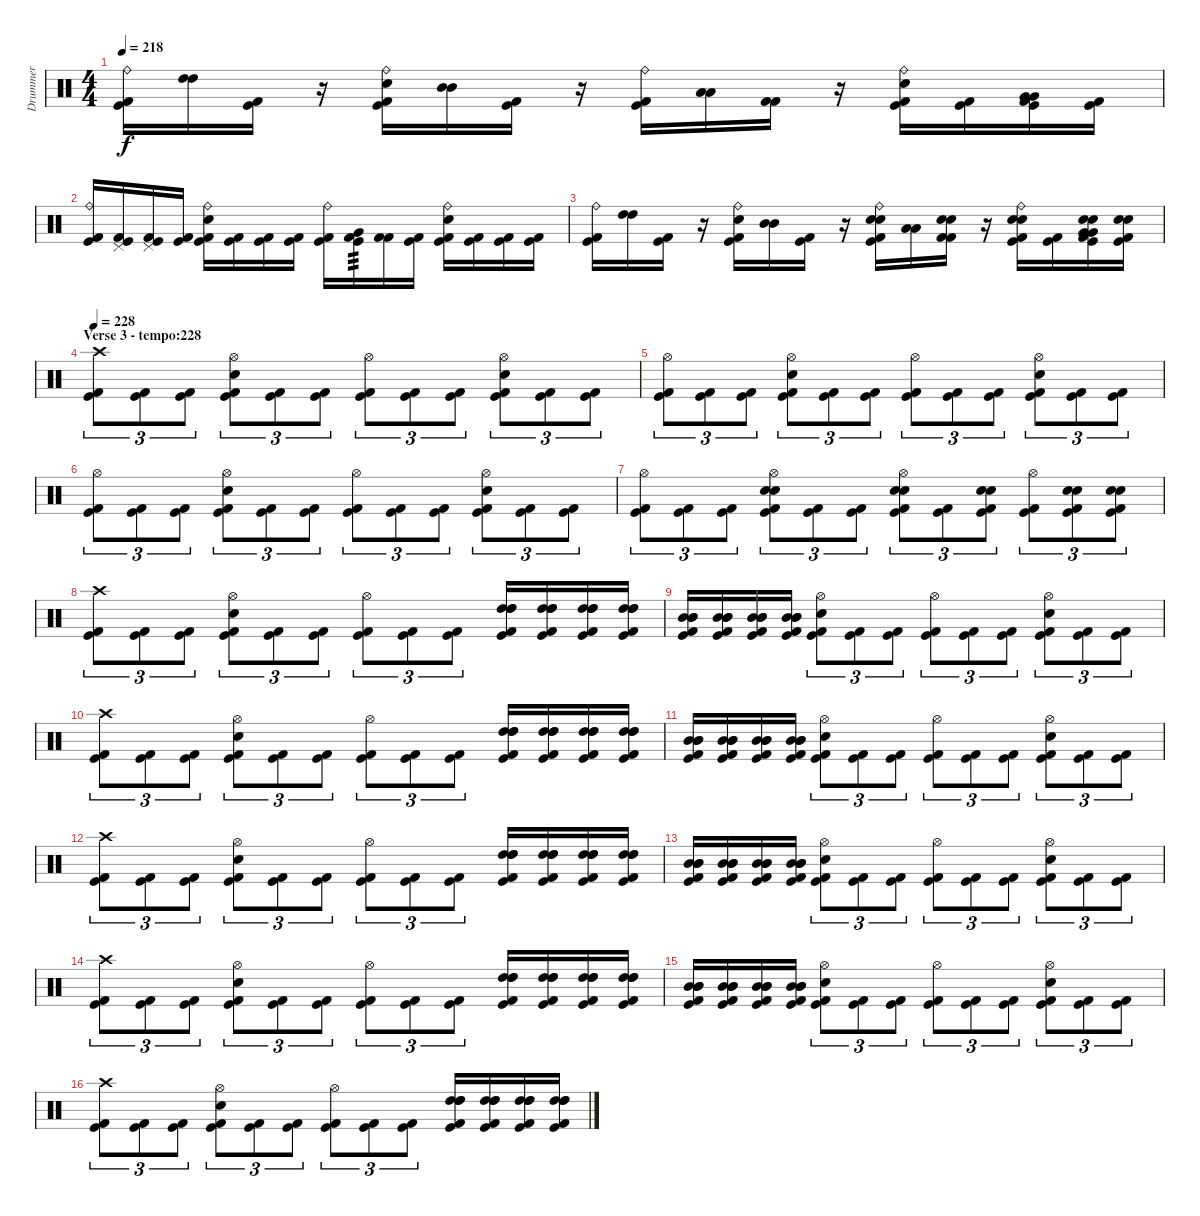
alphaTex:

\track ("Drummer" "Drummer") {instrument percussion}
\staff {score}
\articulation defaults
\ts (4 4)
\tempo 218
\clef neutral
\ks c
("Ride (bell)" "Kick (hit)" "Kick (hit) 2").16{dy f} ("High Tom (hit)" "High Tom (hit)").16 ("Kick (hit)" "Kick (hit) 2").16 r.16 ("Ride (bell)" "Snare (hit) 2" "Kick (hit)" "Kick (hit) 2").16 ("Mid Tom (hit)" "Mid Tom (hit)").16 ("Kick (hit)" "Kick (hit) 2").16 r.16 ("Ride (bell)" "Kick (hit)" "Kick (hit) 2").16 ("Low Tom (hit)" "Low Tom (hit)").16 ("Kick (hit) 2" "Kick (hit) 2").16 r.16 ("Ride (bell)" "Snare (hit) 2" "Kick (hit)" "Kick (hit) 2").16 ("Kick (hit)" "Kick (hit) 2").16 ("Very Low Tom (hit)" "Very Low Tom (hit)" "Kick (hit)" "Kick (hit) 2").16 ("Kick (hit)" "Kick (hit) 2").16 |
("Ride (bell)" "Kick (hit)" "Kick (hit) 2").16 ("Pedal Hi-Hat (hit)" "Kick (hit)" "Kick (hit) 2").16 ("Pedal Hi-Hat (hit)" "Kick (hit)" "Kick (hit) 2").16 ("Kick (hit)" "Kick (hit) 2").16 ("Ride (bell)" "Snare (hit) 2" "Kick (hit)" "Kick (hit) 2").16 ("Kick (hit)" "Kick (hit) 2").16 ("Kick (hit)" "Kick (hit) 2").16 ("Kick (hit)" "Kick (hit) 2").16 ("Ride (bell)" "Kick (hit)" "Kick (hit) 2").16 ("Very Low Tom (hit)" "Kick (hit)" "Kick (hit) 2").16{tp 3} ("Kick (hit) 2" "Kick (hit) 2").16 ("Kick (hit)" "Kick (hit) 2").16 ("Ride (bell)" "Snare (hit) 2" "Kick (hit)" "Kick (hit) 2").16 ("Kick (hit)" "Kick (hit) 2").16 ("Kick (hit)" "Kick (hit) 2").16 ("Kick (hit)" "Kick (hit) 2").16 |
("Ride (bell)" "Kick (hit)" "Kick (hit) 2").16 ("High Tom (hit)" "High Tom (hit)").16 ("Kick (hit)" "Kick (hit) 2").16 r.16 ("Ride (bell)" "Snare (hit) 2" "Kick (hit)" "Kick (hit) 2").16 ("Mid Tom (hit)" "Mid Tom (hit)").16 ("Kick (hit)" "Kick (hit) 2").16 r.16 ("Ride (bell)" "Electric Snare (hit)" "Snare (hit) 2" "Kick (hit)" "Kick (hit) 2").16 ("Low Tom (hit)" "Low Tom (hit)").16 ("Electric Snare (hit)" "Snare (hit) 2" "Kick (hit) 2" "Kick (hit) 2").16 r.16 ("Ride (bell)" "Electric Snare (hit)" "Snare (hit) 2" "Kick (hit)" "Kick (hit) 2").16 ("Kick (hit)" "Kick (hit) 2").16 ("Electric Snare (hit)" "Snare (hit) 2" "Very Low Tom (hit)" "Very Low Tom (hit)" "Kick (hit)" "Kick (hit) 2").16 ("Electric Snare (hit)" "Snare (hit) 2" "Kick (hit)" "Kick (hit) 2").16 |
\section ("" "Verse 3 - tempo:228")
\tempo 228
("Crash high (hit)" "Kick (hit)" "Kick (hit) 2").8{tu (3 2)} ("Kick (hit)" "Kick (hit) 2").8{tu (3 2)} ("Kick (hit)" "Kick (hit) 2").8{tu (3 2)} ("Hi-Hat (open)" "Snare (hit) 2" "Kick (hit)" "Kick (hit) 2").8{tu (3 2)} ("Kick (hit)" "Kick (hit) 2").8{tu (3 2)} ("Kick (hit)" "Kick (hit) 2").8{tu (3 2)} ("Hi-Hat (open)" "Kick (hit)" "Kick (hit) 2").8{tu (3 2)} ("Kick (hit)" "Kick (hit) 2").8{tu (3 2)} ("Kick (hit)" "Kick (hit) 2").8{tu (3 2)} ("Hi-Hat (open)" "Snare (hit) 2" "Kick (hit)" "Kick (hit) 2").8{tu (3 2)} ("Kick (hit)" "Kick (hit) 2").8{tu (3 2)} ("Kick (hit)" "Kick (hit) 2").8{tu (3 2)} |
("Hi-Hat (open)" "Kick (hit)" "Kick (hit) 2").8{tu (3 2)} ("Kick (hit)" "Kick (hit) 2").8{tu (3 2)} ("Kick (hit)" "Kick (hit) 2").8{tu (3 2)} ("Hi-Hat (open)" "Snare (hit) 2" "Kick (hit)" "Kick (hit) 2").8{tu (3 2)} ("Kick (hit)" "Kick (hit) 2").8{tu (3 2)} ("Kick (hit)" "Kick (hit) 2").8{tu (3 2)} ("Hi-Hat (open)" "Kick (hit)" "Kick (hit) 2").8{tu (3 2)} ("Kick (hit)" "Kick (hit) 2").8{tu (3 2)} ("Kick (hit)" "Kick (hit) 2").8{tu (3 2)} ("Hi-Hat (open)" "Snare (hit) 2" "Kick (hit)" "Kick (hit) 2").8{tu (3 2)} ("Kick (hit)" "Kick (hit) 2").8{tu (3 2)} ("Kick (hit)" "Kick (hit) 2").8{tu (3 2)} |
("Hi-Hat (open)" "Kick (hit)" "Kick (hit) 2").8{tu (3 2)} ("Kick (hit)" "Kick (hit) 2").8{tu (3 2)} ("Kick (hit)" "Kick (hit) 2").8{tu (3 2)} ("Hi-Hat (open)" "Snare (hit) 2" "Kick (hit)" "Kick (hit) 2").8{tu (3 2)} ("Kick (hit)" "Kick (hit) 2").8{tu (3 2)} ("Kick (hit)" "Kick (hit) 2").8{tu (3 2)} ("Hi-Hat (open)" "Kick (hit)" "Kick (hit) 2").8{tu (3 2)} ("Kick (hit)" "Kick (hit) 2").8{tu (3 2)} ("Kick (hit)" "Kick (hit) 2").8{tu (3 2)} ("Hi-Hat (open)" "Snare (hit) 2" "Kick (hit)" "Kick (hit) 2").8{tu (3 2)} ("Kick (hit)" "Kick (hit) 2").8{tu (3 2)} ("Kick (hit)" "Kick (hit) 2").8{tu (3 2)} |
("Hi-Hat (open)" "Kick (hit)" "Kick (hit) 2").8{tu (3 2)} ("Kick (hit)" "Kick (hit) 2").8{tu (3 2)} ("Kick (hit)" "Kick (hit) 2").8{tu (3 2)} ("Hi-Hat (open)" "Electric Snare (hit)" "Snare (hit) 2" "Kick (hit)" "Kick (hit) 2").8{tu (3 2)} ("Kick (hit)" "Kick (hit) 2").8{tu (3 2)} ("Kick (hit)" "Kick (hit) 2").8{tu (3 2)} ("Hi-Hat (open)" "Electric Snare (hit)" "Snare (hit) 2" "Kick (hit)" "Kick (hit) 2").8{tu (3 2)} ("Kick (hit)" "Kick (hit) 2").8{tu (3 2)} ("Electric Snare (hit)" "Snare (hit) 2" "Kick (hit)" "Kick (hit) 2").8{tu (3 2)} ("Hi-Hat (open)" "Kick (hit)" "Kick (hit) 2").8{tu (3 2)} ("Electric Snare (hit)" "Snare (hit) 2" "Kick (hit)" "Kick (hit) 2").8{tu (3 2)} ("Electric Snare (hit)" "Snare (hit) 2" "Kick (hit)" "Kick (hit) 2").8{tu (3 2)} |
("Crash high (hit)" "Kick (hit)" "Kick (hit) 2").8{tu (3 2)} ("Kick (hit)" "Kick (hit) 2").8{tu (3 2)} ("Kick (hit)" "Kick (hit) 2").8{tu (3 2)} ("Hi-Hat (open)" "Snare (hit) 2" "Kick (hit)" "Kick (hit) 2").8{tu (3 2)} ("Kick (hit)" "Kick (hit) 2").8{tu (3 2)} ("Kick (hit)" "Kick (hit) 2").8{tu (3 2)} ("Hi-Hat (open)" "Kick (hit)" "Kick (hit) 2").8{tu (3 2)} ("Kick (hit)" "Kick (hit) 2").8{tu (3 2)} ("Kick (hit)" "Kick (hit) 2").8{tu (3 2)} ("High Tom (hit)" "High Tom (hit)" "High Tom (hit)" "Kick (hit)" "Kick (hit) 2").16 ("High Tom (hit)" "High Tom (hit)" "High Tom (hit)" "Kick (hit)" "Kick (hit) 2").16 ("High Tom (hit)" "High Tom (hit)" "High Tom (hit)" "Kick (hit)" "Kick (hit) 2").16 ("High Tom (hit)" "High Tom (hit)" "High Tom (hit)" "Kick (hit)" "Kick (hit) 2").16 |
("Mid Tom (hit)" "Mid Tom (hit)" "Mid Tom (hit)" "Kick (hit)" "Kick (hit) 2").16 ("Mid Tom (hit)" "Mid Tom (hit)" "Mid Tom (hit)" "Kick (hit)" "Kick (hit) 2").16 ("Mid Tom (hit)" "Mid Tom (hit)" "Mid Tom (hit)" "Kick (hit)" "Kick (hit) 2").16 ("Mid Tom (hit)" "Mid Tom (hit)" "Mid Tom (hit)" "Kick (hit)" "Kick (hit) 2").16 ("Hi-Hat (open)" "Snare (hit) 2" "Kick (hit)" "Kick (hit) 2").8{tu (3 2)} ("Kick (hit)" "Kick (hit) 2").8{tu (3 2)} ("Kick (hit)" "Kick (hit) 2").8{tu (3 2)} ("Hi-Hat (open)" "Kick (hit)" "Kick (hit) 2").8{tu (3 2)} ("Kick (hit)" "Kick (hit) 2").8{tu (3 2)} ("Kick (hit)" "Kick (hit) 2").8{tu (3 2)} ("Hi-Hat (open)" "Snare (hit) 2" "Kick (hit)" "Kick (hit) 2").8{tu (3 2)} ("Kick (hit)" "Kick (hit) 2").8{tu (3 2)} ("Kick (hit)" "Kick (hit) 2").8{tu (3 2)} |
("Crash high (hit)" "Kick (hit)" "Kick (hit) 2").8{tu (3 2)} ("Kick (hit)" "Kick (hit) 2").8{tu (3 2)} ("Kick (hit)" "Kick (hit) 2").8{tu (3 2)} ("Hi-Hat (open)" "Snare (hit) 2" "Kick (hit)" "Kick (hit) 2").8{tu (3 2)} ("Kick (hit)" "Kick (hit) 2").8{tu (3 2)} ("Kick (hit)" "Kick (hit) 2").8{tu (3 2)} ("Hi-Hat (open)" "Kick (hit)" "Kick (hit) 2").8{tu (3 2)} ("Kick (hit)" "Kick (hit) 2").8{tu (3 2)} ("Kick (hit)" "Kick (hit) 2").8{tu (3 2)} ("High Tom (hit)" "High Tom (hit)" "High Tom (hit)" "Kick (hit)" "Kick (hit) 2").16 ("High Tom (hit)" "High Tom (hit)" "High Tom (hit)" "Kick (hit)" "Kick (hit) 2").16 ("High Tom (hit)" "High Tom (hit)" "High Tom (hit)" "Kick (hit)" "Kick (hit) 2").16 ("High Tom (hit)" "High Tom (hit)" "High Tom (hit)" "Kick (hit)" "Kick (hit) 2").16 |
("Mid Tom (hit)" "Mid Tom (hit)" "Mid Tom (hit)" "Kick (hit)" "Kick (hit) 2").16 ("Mid Tom (hit)" "Mid Tom (hit)" "Mid Tom (hit)" "Kick (hit)" "Kick (hit) 2").16 ("Mid Tom (hit)" "Mid Tom (hit)" "Mid Tom (hit)" "Kick (hit)" "Kick (hit) 2").16 ("Mid Tom (hit)" "Mid Tom (hit)" "Mid Tom (hit)" "Kick (hit)" "Kick (hit) 2").16 ("Hi-Hat (open)" "Snare (hit) 2" "Kick (hit)" "Kick (hit) 2").8{tu (3 2)} ("Kick (hit)" "Kick (hit) 2").8{tu (3 2)} ("Kick (hit)" "Kick (hit) 2").8{tu (3 2)} ("Hi-Hat (open)" "Kick (hit)" "Kick (hit) 2").8{tu (3 2)} ("Kick (hit)" "Kick (hit) 2").8{tu (3 2)} ("Kick (hit)" "Kick (hit) 2").8{tu (3 2)} ("Hi-Hat (open)" "Snare (hit) 2" "Kick (hit)" "Kick (hit) 2").8{tu (3 2)} ("Kick (hit)" "Kick (hit) 2").8{tu (3 2)} ("Kick (hit)" "Kick (hit) 2").8{tu (3 2)} |
("Crash high (hit)" "Kick (hit)" "Kick (hit) 2").8{tu (3 2)} ("Kick (hit)" "Kick (hit) 2").8{tu (3 2)} ("Kick (hit)" "Kick (hit) 2").8{tu (3 2)} ("Hi-Hat (open)" "Snare (hit) 2" "Kick (hit)" "Kick (hit) 2").8{tu (3 2)} ("Kick (hit)" "Kick (hit) 2").8{tu (3 2)} ("Kick (hit)" "Kick (hit) 2").8{tu (3 2)} ("Hi-Hat (open)" "Kick (hit)" "Kick (hit) 2").8{tu (3 2)} ("Kick (hit)" "Kick (hit) 2").8{tu (3 2)} ("Kick (hit)" "Kick (hit) 2").8{tu (3 2)} ("High Tom (hit)" "High Tom (hit)" "High Tom (hit)" "Kick (hit)" "Kick (hit) 2").16 ("High Tom (hit)" "High Tom (hit)" "High Tom (hit)" "Kick (hit)" "Kick (hit) 2").16 ("High Tom (hit)" "High Tom (hit)" "High Tom (hit)" "Kick (hit)" "Kick (hit) 2").16 ("High Tom (hit)" "High Tom (hit)" "High Tom (hit)" "Kick (hit)" "Kick (hit) 2").16 |
("Mid Tom (hit)" "Mid Tom (hit)" "Mid Tom (hit)" "Kick (hit)" "Kick (hit) 2").16 ("Mid Tom (hit)" "Mid Tom (hit)" "Mid Tom (hit)" "Kick (hit)" "Kick (hit) 2").16 ("Mid Tom (hit)" "Mid Tom (hit)" "Mid Tom (hit)" "Kick (hit)" "Kick (hit) 2").16 ("Mid Tom (hit)" "Mid Tom (hit)" "Mid Tom (hit)" "Kick (hit)" "Kick (hit) 2").16 ("Hi-Hat (open)" "Snare (hit) 2" "Kick (hit)" "Kick (hit) 2").8{tu (3 2)} ("Kick (hit)" "Kick (hit) 2").8{tu (3 2)} ("Kick (hit)" "Kick (hit) 2").8{tu (3 2)} ("Hi-Hat (open)" "Kick (hit)" "Kick (hit) 2").8{tu (3 2)} ("Kick (hit)" "Kick (hit) 2").8{tu (3 2)} ("Kick (hit)" "Kick (hit) 2").8{tu (3 2)} ("Hi-Hat (open)" "Snare (hit) 2" "Kick (hit)" "Kick (hit) 2").8{tu (3 2)} ("Kick (hit)" "Kick (hit) 2").8{tu (3 2)} ("Kick (hit)" "Kick (hit) 2").8{tu (3 2)} |
("Crash high (hit)" "Kick (hit)" "Kick (hit) 2").8{tu (3 2)} ("Kick (hit)" "Kick (hit) 2").8{tu (3 2)} ("Kick (hit)" "Kick (hit) 2").8{tu (3 2)} ("Hi-Hat (open)" "Snare (hit) 2" "Kick (hit)" "Kick (hit) 2").8{tu (3 2)} ("Kick (hit)" "Kick (hit) 2").8{tu (3 2)} ("Kick (hit)" "Kick (hit) 2").8{tu (3 2)} ("Hi-Hat (open)" "Kick (hit)" "Kick (hit) 2").8{tu (3 2)} ("Kick (hit)" "Kick (hit) 2").8{tu (3 2)} ("Kick (hit)" "Kick (hit) 2").8{tu (3 2)} ("High Tom (hit)" "High Tom (hit)" "High Tom (hit)" "Kick (hit)" "Kick (hit) 2").16 ("High Tom (hit)" "High Tom (hit)" "High Tom (hit)" "Kick (hit)" "Kick (hit) 2").16 ("High Tom (hit)" "High Tom (hit)" "High Tom (hit)" "Kick (hit)" "Kick (hit) 2").16 ("High Tom (hit)" "High Tom (hit)" "High Tom (hit)" "Kick (hit)" "Kick (hit) 2").16 |
("Mid Tom (hit)" "Mid Tom (hit)" "Mid Tom (hit)" "Kick (hit)" "Kick (hit) 2").16 ("Mid Tom (hit)" "Mid Tom (hit)" "Mid Tom (hit)" "Kick (hit)" "Kick (hit) 2").16 ("Mid Tom (hit)" "Mid Tom (hit)" "Mid Tom (hit)" "Kick (hit)" "Kick (hit) 2").16 ("Mid Tom (hit)" "Mid Tom (hit)" "Mid Tom (hit)" "Kick (hit)" "Kick (hit) 2").16 ("Hi-Hat (open)" "Snare (hit) 2" "Kick (hit)" "Kick (hit) 2").8{tu (3 2)} ("Kick (hit)" "Kick (hit) 2").8{tu (3 2)} ("Kick (hit)" "Kick (hit) 2").8{tu (3 2)} ("Hi-Hat (open)" "Kick (hit)" "Kick (hit) 2").8{tu (3 2)} ("Kick (hit)" "Kick (hit) 2").8{tu (3 2)} ("Kick (hit)" "Kick (hit) 2").8{tu (3 2)} ("Hi-Hat (open)" "Snare (hit) 2" "Kick (hit)" "Kick (hit) 2").8{tu (3 2)} ("Kick (hit)" "Kick (hit) 2").8{tu (3 2)} ("Kick (hit)" "Kick (hit) 2").8{tu (3 2)} |
("Crash high (hit)" "Kick (hit)" "Kick (hit) 2").8{tu (3 2)} ("Kick (hit)" "Kick (hit) 2").8{tu (3 2)} ("Kick (hit)" "Kick (hit) 2").8{tu (3 2)} ("Hi-Hat (open)" "Snare (hit) 2" "Kick (hit)" "Kick (hit) 2").8{tu (3 2)} ("Kick (hit)" "Kick (hit) 2").8{tu (3 2)} ("Kick (hit)" "Kick (hit) 2").8{tu (3 2)} ("Hi-Hat (open)" "Kick (hit)" "Kick (hit) 2").8{tu (3 2)} ("Kick (hit)" "Kick (hit) 2").8{tu (3 2)} ("Kick (hit)" "Kick (hit) 2").8{tu (3 2)} ("High Tom (hit)" "High Tom (hit)" "High Tom (hit)" "Kick (hit)" "Kick (hit) 2").16 ("High Tom (hit)" "High Tom (hit)" "High Tom (hit)" "Kick (hit)" "Kick (hit) 2").16 ("High Tom (hit)" "High Tom (hit)" "High Tom (hit)" "Kick (hit)" "Kick (hit) 2").16 ("High Tom (hit)" "High Tom (hit)" "High Tom (hit)" "Kick (hit)" "Kick (hit) 2").16
